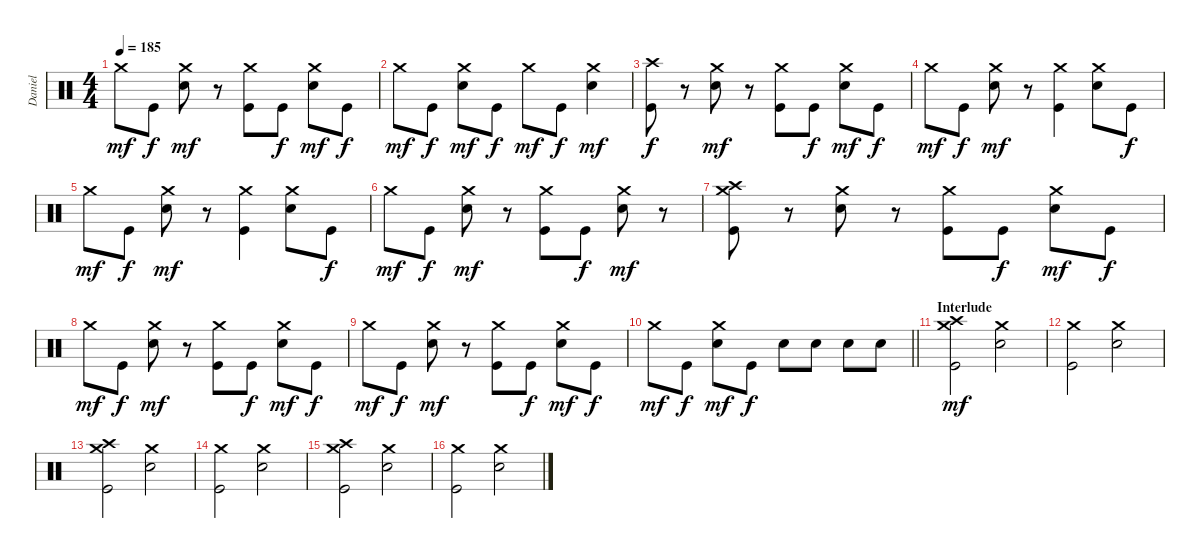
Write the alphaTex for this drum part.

\track ("Daniel" "Daniel") {instrument percussion}
\staff {score}
\articulation defaults
\ts (4 4)
\tempo 185
\clef neutral
\ks c "Crash medium (hit)".8{dy mf} "Kick (hit)".8{dy f}
("Electric Snare (hit)" "Crash medium (hit)").8{dy mf} r.8 ("Kick (hit)" "Crash medium (hit)").8 "Kick (hit)".8{dy f} ("Electric Snare (hit)" "Crash medium (hit)").8{dy mf} "Kick (hit)".8{dy f} |
"Crash medium (hit)".8{dy mf} "Kick (hit)".8{dy f} ("Electric Snare (hit)" "Crash medium (hit)").8{dy mf} "Kick (hit)".8{dy f} "Crash medium (hit)".8{dy mf} "Kick (hit)".8{dy f} ("Electric Snare (hit)" "Crash medium (hit)").4{dy mf} |
("Kick (hit)" "Crash high (hit)").8{dy f} r.8 ("Electric Snare (hit)" "Crash medium (hit)").8{dy mf} r.8 ("Kick (hit)" "Crash medium (hit)").8 "Kick (hit)".8{dy f} ("Electric Snare (hit)" "Crash medium (hit)").8{dy mf} "Kick (hit)".8{dy f} |
"Crash medium (hit)".8{dy mf} "Kick (hit)".8{dy f} ("Electric Snare (hit)" "Crash medium (hit)").8{dy mf} r.8 ("Kick (hit)" "Crash medium (hit)").4 ("Electric Snare (hit)" "Crash medium (hit)").8 "Kick (hit)".8{dy f} |
"Crash medium (hit)".8{dy mf} "Kick (hit)".8{dy f} ("Electric Snare (hit)" "Crash medium (hit)").8{dy mf} r.8 ("Kick (hit)" "Crash medium (hit)").4 ("Electric Snare (hit)" "Crash medium (hit)").8 "Kick (hit)".8{dy f} |
"Crash medium (hit)".8{dy mf} "Kick (hit)".8{dy f} ("Electric Snare (hit)" "Crash medium (hit)").8{dy mf} r.8 ("Kick (hit)" "Crash medium (hit)").8 "Kick (hit)".8{dy f} ("Electric Snare (hit)" "Crash medium (hit)").8{dy mf} r.8 |
("Kick (hit)" "Crash medium (hit)" "Crash high (hit)").8 r.8 ("Electric Snare (hit)" "Crash medium (hit)").8 r.8 ("Kick (hit)" "Crash medium (hit)").8 "Kick (hit)".8{dy f} ("Electric Snare (hit)" "Crash medium (hit)").8{dy mf} "Kick (hit)".8{dy f} |
"Crash medium (hit)".8{dy mf} "Kick (hit)".8{dy f} ("Electric Snare (hit)" "Crash medium (hit)").8{dy mf} r.8 ("Kick (hit)" "Crash medium (hit)").8 "Kick (hit)".8{dy f} ("Electric Snare (hit)" "Crash medium (hit)").8{dy mf} "Kick (hit)".8{dy f} |
"Crash medium (hit)".8{dy mf} "Kick (hit)".8{dy f} ("Electric Snare (hit)" "Crash medium (hit)").8{dy mf} r.8 ("Kick (hit)" "Crash medium (hit)").8 "Kick (hit)".8{dy f} ("Electric Snare (hit)" "Crash medium (hit)").8{dy mf} "Kick (hit)".8{dy f} |
\barLineRight lightlight "Crash medium (hit)".8{dy mf} "Kick (hit)".8{dy f}
("Electric Snare (hit)" "Crash medium (hit)").8{dy mf} "Kick (hit)".8{dy f} "Electric Snare (hit)".8 "Electric Snare (hit)".8 "Electric Snare (hit)".8 "Electric Snare (hit)".8 |
\section ("" "Interlude")
("Kick (hit)" "Crash medium (hit)" "Crash high (hit)").2{dy mf} ("Electric Snare (hit)" "Crash medium (hit)").2 |
("Kick (hit)" "Crash medium (hit)").2 ("Electric Snare (hit)" "Crash medium (hit)").2 |
("Kick (hit)" "Crash medium (hit)" "Crash high (hit)").2 ("Electric Snare (hit)" "Crash medium (hit)").2 |
("Kick (hit)" "Crash medium (hit)").2 ("Electric Snare (hit)" "Crash medium (hit)").2 |
("Kick (hit)" "Crash medium (hit)" "Crash high (hit)").2 ("Electric Snare (hit)" "Crash medium (hit)").2 |
("Kick (hit)" "Crash medium (hit)").2 ("Electric Snare (hit)" "Crash medium (hit)").2
